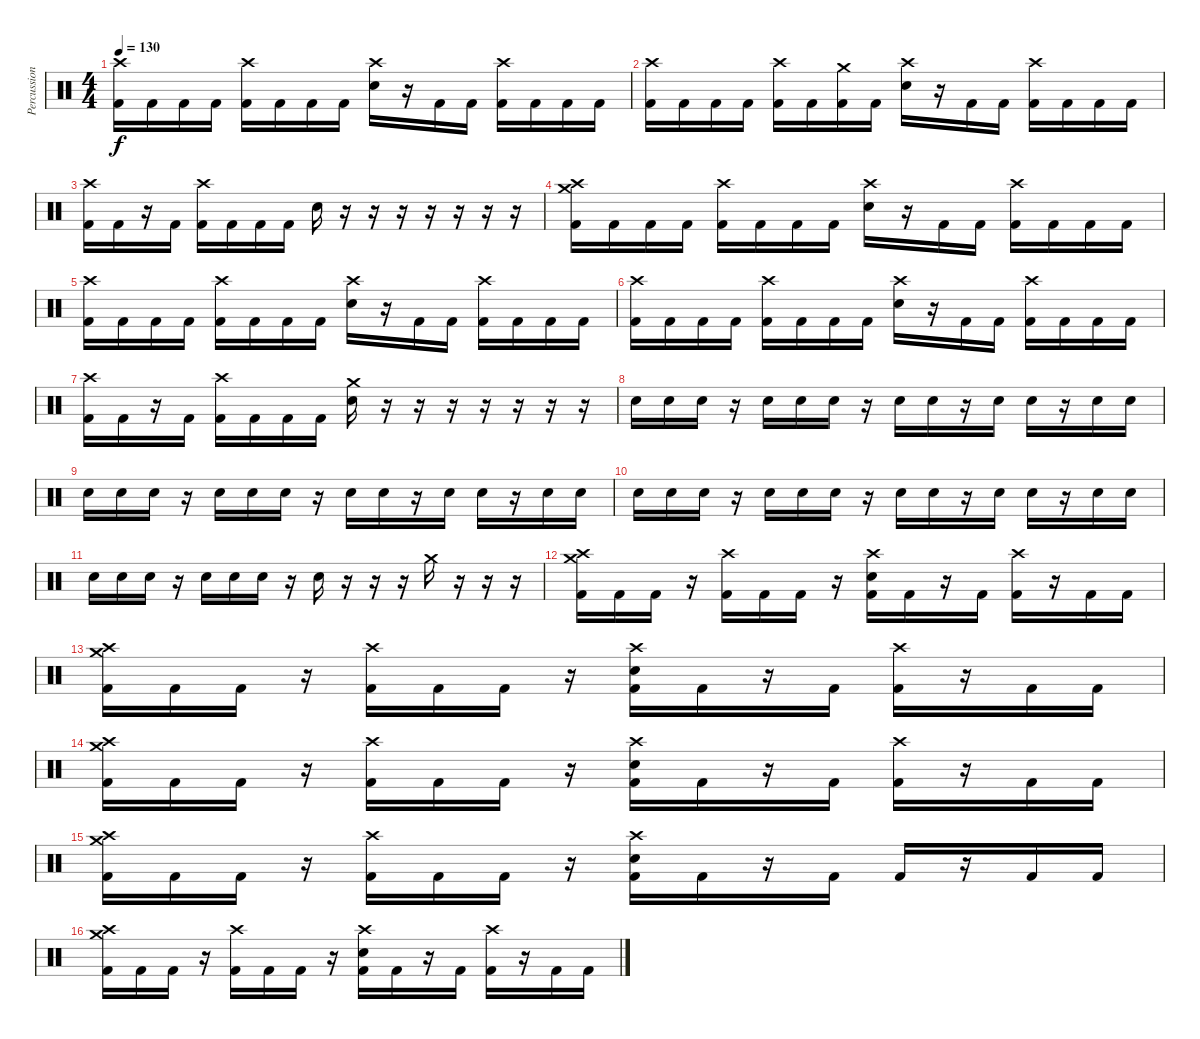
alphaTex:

\track ("Percussion" "Percussion") {instrument percussion}
\staff {score}
\articulation defaults
\ts (4 4)
\tempo 130
\clef neutral
\ks c
("Crash high (hit)" "Kick (hit) 2").16{dy f} "Kick (hit) 2".16 "Kick (hit) 2".16 "Kick (hit) 2".16 ("Crash high (hit)" "Kick (hit) 2").16 "Kick (hit) 2".16 "Kick (hit) 2".16 "Kick (hit) 2".16 ("Crash high (hit)" "Electric Snare (hit)").16 r.16 "Kick (hit) 2".16 "Kick (hit) 2".16 ("Crash high (hit)" "Kick (hit) 2").16 "Kick (hit) 2".16 "Kick (hit) 2".16 "Kick (hit) 2".16 |
("Crash high (hit)" "Kick (hit) 2").16 "Kick (hit) 2".16 "Kick (hit) 2".16 "Kick (hit) 2".16 ("Crash high (hit)" "Kick (hit) 2").16 "Kick (hit) 2".16 ("Crash medium (hit)" "Kick (hit) 2").16 "Kick (hit) 2".16 ("Crash high (hit)" "Electric Snare (hit)").16 r.16 "Kick (hit) 2".16 "Kick (hit) 2".16 ("Crash high (hit)" "Kick (hit) 2").16 "Kick (hit) 2".16 "Kick (hit) 2".16 "Kick (hit) 2".16 |
("Crash high (hit)" "Kick (hit) 2").16 "Kick (hit) 2".16 r.16 "Kick (hit) 2".16 ("Crash high (hit)" "Kick (hit) 2").16 "Kick (hit) 2".16 "Kick (hit) 2".16 "Kick (hit) 2".16 "Electric Snare (hit)".16 r.16 r.16 r.16 r.16 r.16 r.16 r.16 |
("Crash medium (hit)" "Crash high (hit)" "Kick (hit) 2").16 "Kick (hit) 2".16 "Kick (hit) 2".16 "Kick (hit) 2".16 ("Crash high (hit)" "Kick (hit) 2").16 "Kick (hit) 2".16 "Kick (hit) 2".16 "Kick (hit) 2".16 ("Crash high (hit)" "Electric Snare (hit)").16 r.16 "Kick (hit) 2".16 "Kick (hit) 2".16 ("Crash high (hit)" "Kick (hit) 2").16 "Kick (hit) 2".16 "Kick (hit) 2".16 "Kick (hit) 2".16 |
("Crash high (hit)" "Kick (hit) 2").16 "Kick (hit) 2".16 "Kick (hit) 2".16 "Kick (hit) 2".16 ("Crash high (hit)" "Kick (hit) 2").16 "Kick (hit) 2".16 "Kick (hit) 2".16 "Kick (hit) 2".16 ("Crash high (hit)" "Electric Snare (hit)").16 r.16 "Kick (hit) 2".16 "Kick (hit) 2".16 ("Crash high (hit)" "Kick (hit) 2").16 "Kick (hit) 2".16 "Kick (hit) 2".16 "Kick (hit) 2".16 |
("Crash high (hit)" "Kick (hit) 2").16 "Kick (hit) 2".16 "Kick (hit) 2".16 "Kick (hit) 2".16 ("Crash high (hit)" "Kick (hit) 2").16 "Kick (hit) 2".16 "Kick (hit) 2".16 "Kick (hit) 2".16 ("Crash high (hit)" "Electric Snare (hit)").16 r.16 "Kick (hit) 2".16 "Kick (hit) 2".16 ("Crash high (hit)" "Kick (hit) 2").16 "Kick (hit) 2".16 "Kick (hit) 2".16 "Kick (hit) 2".16 |
("Crash high (hit)" "Kick (hit) 2").16 "Kick (hit) 2".16 r.16 "Kick (hit) 2".16 ("Crash high (hit)" "Kick (hit) 2").16 "Kick (hit) 2".16 "Kick (hit) 2".16 "Kick (hit) 2".16 ("Crash medium (hit)" "Electric Snare (hit)").16 r.16 r.16 r.16 r.16 r.16 r.16 r.16 |
"Electric Snare (hit)".16 "Electric Snare (hit)".16 "Electric Snare (hit)".16 r.16 "Electric Snare (hit)".16 "Electric Snare (hit)".16 "Electric Snare (hit)".16 r.16 "Electric Snare (hit)".16 "Electric Snare (hit)".16 r.16 "Electric Snare (hit)".16 "Electric Snare (hit)".16 r.16 "Electric Snare (hit)".16 "Electric Snare (hit)".16 |
"Electric Snare (hit)".16 "Electric Snare (hit)".16 "Electric Snare (hit)".16 r.16 "Electric Snare (hit)".16 "Electric Snare (hit)".16 "Electric Snare (hit)".16 r.16 "Electric Snare (hit)".16 "Electric Snare (hit)".16 r.16 "Electric Snare (hit)".16 "Electric Snare (hit)".16 r.16 "Electric Snare (hit)".16 "Electric Snare (hit)".16 |
"Electric Snare (hit)".16 "Electric Snare (hit)".16 "Electric Snare (hit)".16 r.16 "Electric Snare (hit)".16 "Electric Snare (hit)".16 "Electric Snare (hit)".16 r.16 "Electric Snare (hit)".16 "Electric Snare (hit)".16 r.16 "Electric Snare (hit)".16 "Electric Snare (hit)".16 r.16 "Electric Snare (hit)".16 "Electric Snare (hit)".16 |
"Electric Snare (hit)".16 "Electric Snare (hit)".16 "Electric Snare (hit)".16 r.16 "Electric Snare (hit)".16 "Electric Snare (hit)".16 "Electric Snare (hit)".16 r.16 "Electric Snare (hit)".16 r.16 r.16 r.16 "Crash medium (hit)".16 r.16 r.16 r.16 |
("Crash medium (hit)" "Crash high (hit)" "Kick (hit) 2").16 "Kick (hit) 2".16 "Kick (hit) 2".16 r.16 ("Crash high (hit)" "Kick (hit) 2").16 "Kick (hit) 2".16 "Kick (hit) 2".16 r.16 ("Crash high (hit)" "Electric Snare (hit)" "Kick (hit) 2").16 "Kick (hit) 2".16 r.16 "Kick (hit) 2".16 ("Crash high (hit)" "Kick (hit) 2").16 r.16 "Kick (hit) 2".16 "Kick (hit) 2".16 |
("Crash medium (hit)" "Crash high (hit)" "Kick (hit) 2").16 "Kick (hit) 2".16 "Kick (hit) 2".16 r.16 ("Crash high (hit)" "Kick (hit) 2").16 "Kick (hit) 2".16 "Kick (hit) 2".16 r.16 ("Crash high (hit)" "Electric Snare (hit)" "Kick (hit) 2").16 "Kick (hit) 2".16 r.16 "Kick (hit) 2".16 ("Crash high (hit)" "Kick (hit) 2").16 r.16 "Kick (hit) 2".16 "Kick (hit) 2".16 |
("Crash medium (hit)" "Crash high (hit)" "Kick (hit) 2").16 "Kick (hit) 2".16 "Kick (hit) 2".16 r.16 ("Crash high (hit)" "Kick (hit) 2").16 "Kick (hit) 2".16 "Kick (hit) 2".16 r.16 ("Crash high (hit)" "Electric Snare (hit)" "Kick (hit) 2").16 "Kick (hit) 2".16 r.16 "Kick (hit) 2".16 ("Crash high (hit)" "Kick (hit) 2").16 r.16 "Kick (hit) 2".16 "Kick (hit) 2".16 |
("Crash medium (hit)" "Crash high (hit)" "Kick (hit) 2").16 "Kick (hit) 2".16 "Kick (hit) 2".16 r.16 ("Crash high (hit)" "Kick (hit) 2").16 "Kick (hit) 2".16 "Kick (hit) 2".16 r.16 ("Crash high (hit)" "Electric Snare (hit)" "Kick (hit) 2").16 "Kick (hit) 2".16 r.16 "Kick (hit) 2".16 "Kick (hit) 2".16 r.16 "Kick (hit) 2".16 "Kick (hit) 2".16 |
("Crash medium (hit)" "Crash high (hit)" "Kick (hit) 2").16 "Kick (hit) 2".16 "Kick (hit) 2".16 r.16 ("Crash high (hit)" "Kick (hit) 2").16 "Kick (hit) 2".16 "Kick (hit) 2".16 r.16 ("Crash high (hit)" "Electric Snare (hit)" "Kick (hit) 2").16 "Kick (hit) 2".16 r.16 "Kick (hit) 2".16 ("Crash high (hit)" "Kick (hit) 2").16 r.16 "Kick (hit) 2".16 "Kick (hit) 2".16
